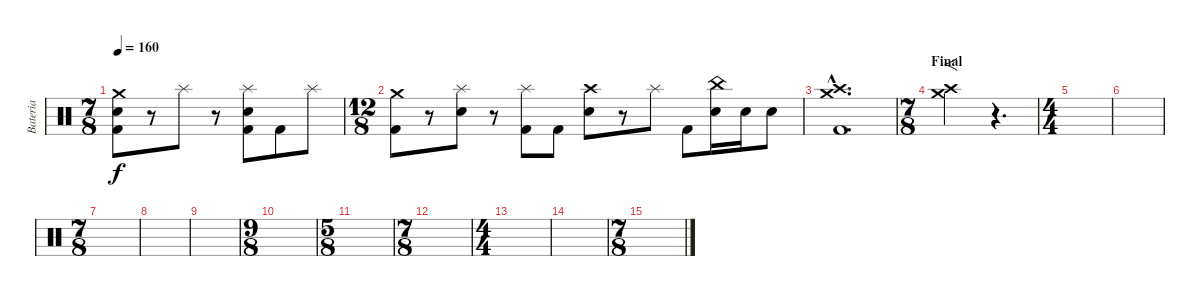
\track ("Bateria" "Bateria") {instrument percussion}
\staff {score}
\articulation defaults
\ts (7 8)
\tempo 160
\clef neutral
\ks c
("Crash medium (hit)" "Electric Snare (hit)" "Kick (hit) 2").8{dy f} r.8 "Splash (hit)".8 r.8 ("Splash (hit)" "Electric Snare (hit)" "Kick (hit) 2").8 "Kick (hit) 2".8 "Splash (hit)".8 |
\ts (12 8)
("Crash medium (hit)" "Kick (hit) 2").8 r.8 ("Splash (hit)" "Electric Snare (hit)").8 r.8 ("Splash (hit)" "Kick (hit) 2").8 "Kick (hit) 2".8 ("Crash high (hit)" "Electric Snare (hit)").8 r.8 "Splash (hit)".8 "Kick (hit) 2".8 ("China (hit)" "Electric Snare (hit)").16 "Electric Snare (hit)".16 "Electric Snare (hit)".8 |
("Crash medium (hit)"{hac} "Crash high (hit)"{hac} "Kick (hit) 2"{hac}).1{d} |
\ts (7 8)
\section ("" "Final")
("Crash medium (hit)" "Crash high (hit)").2{f} r.4{d} |
\ts (4 4)
|
|
\ts (7 8)
|
|
|
\ts (9 8)
|
\ts (5 8)
|
\ts (7 8)
|
\ts (4 4)
|
|
\ts (7 8)
